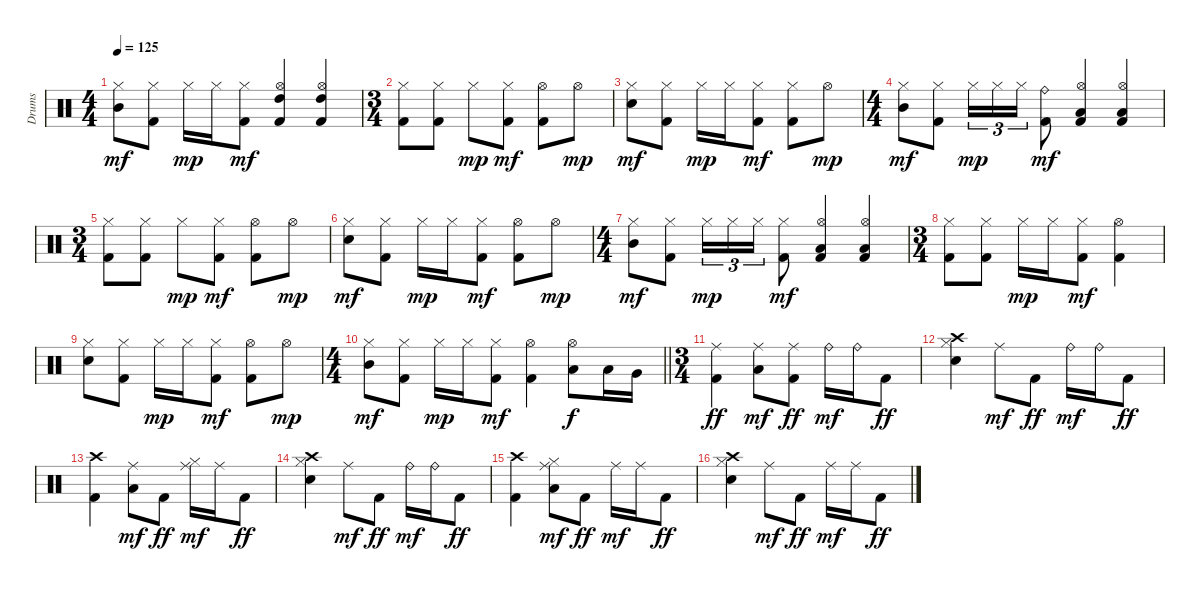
\track ("Drums" "Drums") {instrument percussion}
\staff {score}
\articulation defaults
\ts (4 4)
\tempo 125
\clef neutral
\ks c
("Hi-Hat (closed)" "Mid Tom (hit)").8{dy mf} ("Hi-Hat (closed)" "Kick (hit) 2").8 "Hi-Hat (closed)".16{dy mp} "Hi-Hat (closed)".16 ("Hi-Hat (closed)" "Kick (hit) 2").8{dy mf} ("Hi-Hat (open)" "High Tom (hit)" "Kick (hit) 2").4 ("Hi-Hat (open)" "High Tom (hit)" "Kick (hit) 2").4 |
\ts (3 4)
("Hi-Hat (closed)" "Kick (hit) 2").8 ("Hi-Hat (closed)" "Kick (hit) 2").8 "Hi-Hat (closed)".8{dy mp} ("Hi-Hat (closed)" "Kick (hit) 2").8{dy mf} ("Hi-Hat (open)" "Kick (hit) 2").8 "Hi-Hat (open)".8{dy mp} |
("Hi-Hat (closed)" "Snare (hit) 2").8{dy mf} ("Hi-Hat (closed)" "Kick (hit) 2").8 "Hi-Hat (closed)".16{dy mp} "Hi-Hat (closed)".16 ("Hi-Hat (closed)" "Kick (hit) 2").8{dy mf} ("Hi-Hat (closed)" "Kick (hit) 2").8 "Hi-Hat (open)".8{dy mp} |
\ts (4 4)
("Hi-Hat (closed)" "Mid Tom (hit)").8{dy mf} ("Hi-Hat (closed)" "Kick (hit) 2").8 "Hi-Hat (closed)".16{tu (3 2) dy mp} "Hi-Hat (closed)".16{tu (3 2)} "Hi-Hat (closed)".16{tu (3 2)} ("Ride (bell)" "Kick (hit) 2").8{dy mf} ("Hi-Hat (open)" "Low Tom (hit)" "Kick (hit) 2").4 ("Hi-Hat (open)" "Low Tom (hit)" "Kick (hit) 2").4 |
\ts (3 4)
("Hi-Hat (closed)" "Kick (hit) 2").8 ("Hi-Hat (closed)" "Kick (hit) 2").8 "Hi-Hat (closed)".8{dy mp} ("Hi-Hat (closed)" "Kick (hit) 2").8{dy mf} ("Hi-Hat (open)" "Kick (hit) 2").8 "Hi-Hat (open)".8{dy mp} |
("Hi-Hat (closed)" "Snare (hit) 2").8{dy mf} ("Hi-Hat (closed)" "Kick (hit) 2").8 "Hi-Hat (closed)".16{dy mp} "Hi-Hat (closed)".16 ("Hi-Hat (closed)" "Kick (hit) 2").8{dy mf} ("Hi-Hat (open)" "Kick (hit) 2").8 "Hi-Hat (open)".8{dy mp} |
\ts (4 4)
("Hi-Hat (closed)" "Mid Tom (hit)").8{dy mf} ("Hi-Hat (closed)" "Kick (hit) 2").8 "Hi-Hat (closed)".16{tu (3 2) dy mp} "Hi-Hat (closed)".16{tu (3 2)} "Hi-Hat (closed)".16{tu (3 2)} ("Hi-Hat (closed)" "Kick (hit) 2").8{dy mf} ("Hi-Hat (open)" "Low Tom (hit)" "Kick (hit) 2").4 ("Hi-Hat (open)" "Low Tom (hit)" "Kick (hit) 2").4 |
\ts (3 4)
("Hi-Hat (closed)" "Kick (hit) 2").8 ("Hi-Hat (closed)" "Kick (hit) 2").8 "Hi-Hat (closed)".16{dy mp} "Hi-Hat (closed)".16 ("Hi-Hat (closed)" "Kick (hit) 2").8{dy mf} ("Hi-Hat (open)" "Kick (hit) 2").4 |
("Hi-Hat (closed)" "Snare (hit) 2").8 ("Hi-Hat (closed)" "Kick (hit) 2").8 "Hi-Hat (closed)".16{dy mp} "Hi-Hat (closed)".16 ("Hi-Hat (closed)" "Kick (hit) 2").8{dy mf} ("Hi-Hat (open)" "Kick (hit) 2").8 "Hi-Hat (open)".8{dy mp} |
\ts (4 4)
\barLineRight lightlight
("Hi-Hat (closed)" "Mid Tom (hit)").8{dy mf} ("Hi-Hat (closed)" "Kick (hit) 2").8 "Hi-Hat (closed)".16{dy mp} "Hi-Hat (closed)".16 ("Hi-Hat (closed)" "Kick (hit) 2").8{dy mf} ("Hi-Hat (open)" "Kick (hit) 2").4 ("Hi-Hat (open)" "Low Floor Tom (hit)").8{dy f} "Low Tom (hit)".16 "Very Low Tom (hit)".16 |
\ts (3 4)
\section ("" "")
("Ride (middle)" "Kick (hit) 2").4{dy ff} ("Ride (middle)" "Low Tom (hit)").8{dy mf} ("Ride (middle)" "Kick (hit) 2").8{dy ff} "Ride (bell)".16{dy mf} "Ride (bell)".16 "Kick (hit) 2".8{dy ff} |
("Crash high (hit)" "Hi-Hat (closed)" "Snare (hit) 2").4 "Ride (middle)".8{dy mf} "Kick (hit) 2".8{dy ff} "Ride (bell)".16{dy mf} "Ride (bell)".16 "Kick (hit) 2".8{dy ff} |
("Crash high (hit)" "Kick (hit) 2").4 ("Ride (middle)" "Low Tom (hit)").8{dy mf} "Kick (hit) 2".8{dy ff} ("Ride (middle)" "Hi-Hat (closed)").16{dy mf} "Ride (middle)".16 "Kick (hit) 2".8{dy ff} |
("Crash high (hit)" "Hi-Hat (closed)" "Snare (hit) 2").4 "Ride (middle)".8{dy mf} "Kick (hit) 2".8{dy ff} "Ride (bell)".16{dy mf} "Ride (bell)".16 "Kick (hit) 2".8{dy ff} |
("Crash high (hit)" "Kick (hit) 2").4 ("Ride (middle)" "Hi-Hat (closed)" "Low Tom (hit)").8{dy mf} "Kick (hit) 2".8{dy ff} "Ride (middle)".16{dy mf} "Ride (middle)".16 "Kick (hit) 2".8{dy ff} |
("Crash high (hit)" "Hi-Hat (closed)" "Snare (hit) 2").4 "Ride (middle)".8{dy mf} "Kick (hit) 2".8{dy ff} "Ride (middle)".16{dy mf} "Ride (middle)".16 "Kick (hit) 2".8{dy ff}
